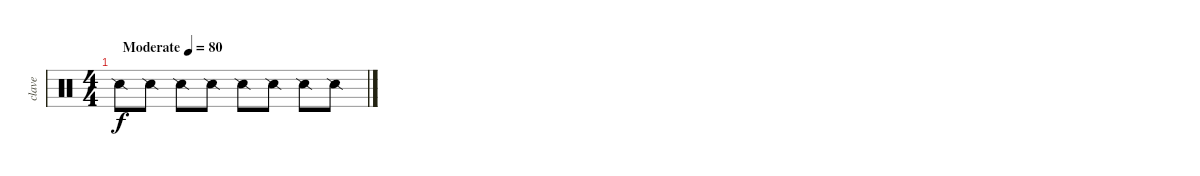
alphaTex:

\track ("clave" "clave") {instrument percussion}
\staff {score}
\articulation defaults
\ts (4 4)
\tempo (80 "Moderate")
\clef neutral
\ks c "Snare (side stick) 2".8{dy f} "Snare (side stick) 2".8 "Snare (side stick) 2".8 "Snare (side stick) 2".8 "Snare (side stick) 2".8 "Snare (side stick) 2".8 "Snare (side stick) 2".8 "Snare (side stick) 2".8
